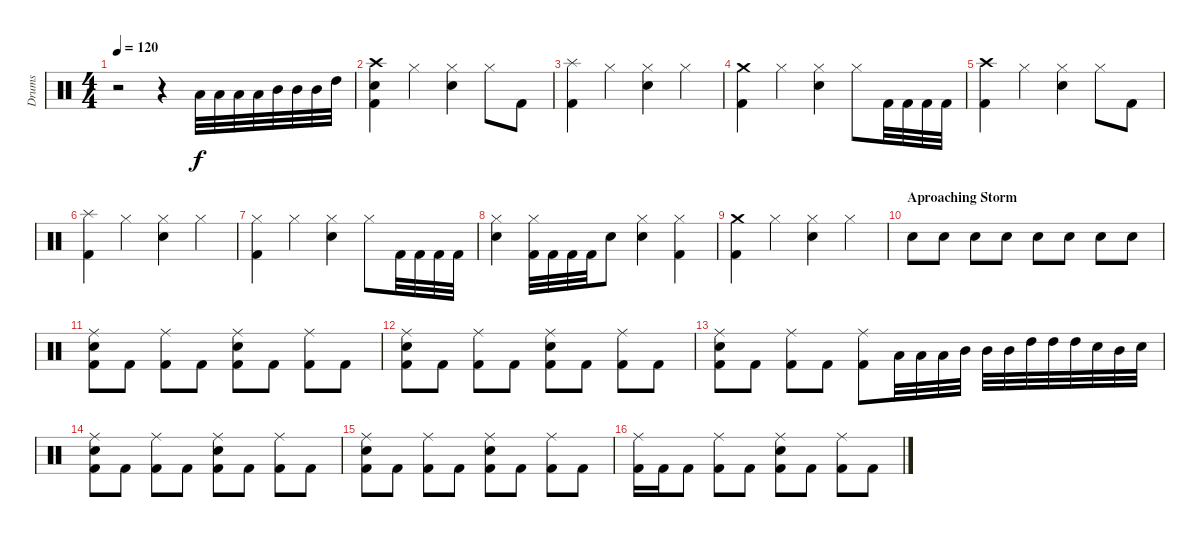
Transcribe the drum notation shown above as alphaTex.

\track ("Drums" "Drums") {instrument percussion}
\staff {score}
\articulation defaults
\ts (4 4)
\tempo 120
\clef neutral
\ks c
r.2{dy f} r.4 "Low Tom (hit)".32 "Low Tom (hit)".32 "Low Tom (hit)".32 "Low Tom (hit)".32 "Mid Tom (hit)".32 "Mid Tom (hit)".32 "Mid Tom (hit)".32 "High Tom (hit)".32 |
("Kick (hit) 2" "Snare (hit) 2" "Crash high (hit)").4 "Hi-Hat (closed)".4 ("Snare (hit) 2" "Hi-Hat (closed)").4 "Hi-Hat (closed)".8 "Kick (hit) 2".8 |
("Kick (hit) 2" "Splash (hit)").4 "Hi-Hat (closed)".4 ("Snare (hit) 2" "Hi-Hat (closed)").4 "Hi-Hat (closed)".4 |
("Kick (hit) 2" "Crash medium (hit)").4 "Hi-Hat (closed)".4 ("Snare (hit) 2" "Hi-Hat (closed)").4 "Hi-Hat (closed)".8 "Kick (hit) 2".32 "Kick (hit) 2".32 "Kick (hit) 2".32 "Kick (hit) 2".32 |
("Kick (hit) 2" "Crash high (hit)").4 "Hi-Hat (closed)".4 ("Snare (hit) 2" "Hi-Hat (closed)").4 "Hi-Hat (closed)".8 "Kick (hit) 2".8 |
("Kick (hit) 2" "Splash (hit)").4 "Hi-Hat (closed)".4 ("Snare (hit) 2" "Hi-Hat (closed)").4 "Hi-Hat (closed)".4 |
("Kick (hit) 2" "Hi-Hat (closed)").4 "Hi-Hat (closed)".4 ("Snare (hit) 2" "Hi-Hat (closed)").4 "Hi-Hat (closed)".8 "Kick (hit) 2".32 "Kick (hit) 2".32 "Kick (hit) 2".32 "Kick (hit) 2".32 |
("Snare (hit) 2" "Hi-Hat (closed)").4 ("Kick (hit) 2" "Hi-Hat (closed)").32 "Kick (hit) 2".32 "Kick (hit) 2".32 "Kick (hit) 2".32 "Snare (hit) 2".8 ("Snare (hit) 2" "Hi-Hat (closed)").4 ("Kick (hit) 2" "Hi-Hat (closed)").4 |
("Kick (hit) 2" "Crash medium (hit)").4 "Hi-Hat (closed)".4 ("Snare (hit) 2" "Hi-Hat (closed)").4 "Hi-Hat (closed)".4 |
\section ("" "Aproaching Storm")
"Snare (hit) 2".8{volume 2} "Snare (hit) 2".8{volume 4} "Snare (hit) 2".8{volume 6} "Snare (hit) 2".8{volume 8} "Snare (hit) 2".8{volume 10} "Snare (hit) 2".8{volume 12} "Snare (hit) 2".8{volume 14} "Snare (hit) 2".8{volume 16} |
("Kick (hit) 2" "Snare (hit) 2" "Ride (middle)").8 "Kick (hit) 2".8 ("Kick (hit) 2" "Ride (middle)").8 "Kick (hit) 2".8 ("Kick (hit) 2" "Snare (hit) 2" "Ride (middle)").8 "Kick (hit) 2".8 ("Kick (hit) 2" "Ride (middle)").8 "Kick (hit) 2".8 |
("Kick (hit) 2" "Snare (hit) 2" "Ride (middle)").8 "Kick (hit) 2".8 ("Kick (hit) 2" "Ride (middle)").8 "Kick (hit) 2".8 ("Kick (hit) 2" "Snare (hit) 2" "Ride (middle)").8 "Kick (hit) 2".8 ("Kick (hit) 2" "Ride (middle)").8 "Kick (hit) 2".8 |
("Kick (hit) 2" "Snare (hit) 2" "Ride (middle)").8 "Kick (hit) 2".8 ("Kick (hit) 2" "Ride (middle)").8 "Kick (hit) 2".8 ("Kick (hit) 2" "Ride (middle)").8 "Low Tom (hit)".32 "Low Tom (hit)".32 "Low Tom (hit)".32 "Mid Tom (hit)".32 "Mid Tom (hit)".32 "Mid Tom (hit)".32 "High Tom (hit)".32 "High Tom (hit)".32 "High Tom (hit)".32 "Snare (hit) 2".32 "Mid Tom (hit)".32 "Snare (hit) 2".32 |
("Kick (hit) 2" "Snare (hit) 2" "Ride (middle)").8 "Kick (hit) 2".8 ("Kick (hit) 2" "Ride (middle)").8 "Kick (hit) 2".8 ("Kick (hit) 2" "Snare (hit) 2" "Ride (middle)").8 "Kick (hit) 2".8 ("Kick (hit) 2" "Ride (middle)").8 "Kick (hit) 2".8 |
("Kick (hit) 2" "Snare (hit) 2" "Ride (middle)").8 "Kick (hit) 2".8 ("Kick (hit) 2" "Ride (middle)").8 "Kick (hit) 2".8 ("Kick (hit) 2" "Snare (hit) 2" "Ride (middle)").8 "Kick (hit) 2".8 ("Kick (hit) 2" "Ride (middle)").8 "Kick (hit) 2".8 |
("Kick (hit) 2" "Ride (middle)").16 "Kick (hit) 2".16 "Kick (hit) 2".8 ("Kick (hit) 2" "Ride (middle)").8 "Kick (hit) 2".8 ("Kick (hit) 2" "Snare (hit) 2" "Ride (middle)").8 "Kick (hit) 2".8 ("Kick (hit) 2" "Ride (middle)").8 "Kick (hit) 2".8
